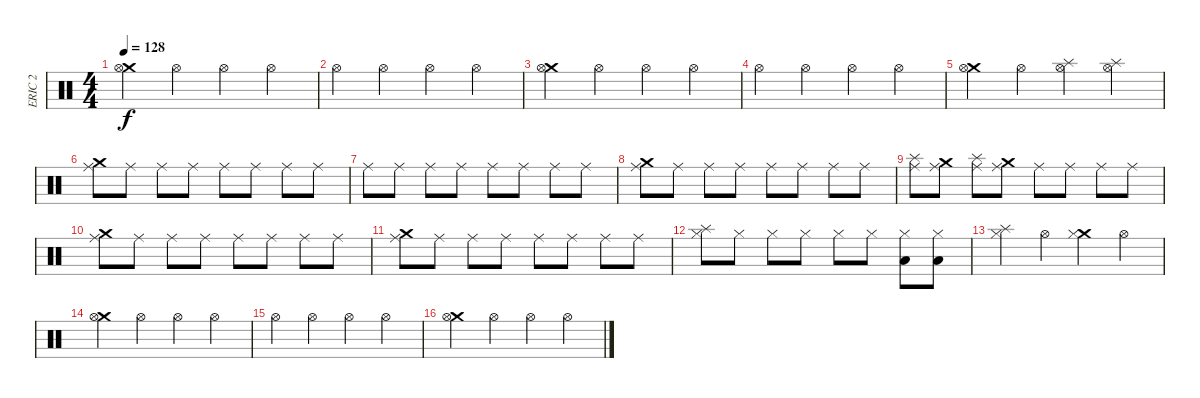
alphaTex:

\track ("ERIC 2" "ERIC 2") {instrument percussion}
\staff {score}
\articulation defaults
\ts (4 4)
\tempo 128
\clef neutral
\ks c
("Crash medium (hit)" "Hi-Hat (open)").4{dy f} "Hi-Hat (open)".4 "Hi-Hat (open)".4 "Hi-Hat (open)".4 |
"Hi-Hat (open)".4 "Hi-Hat (open)".4 "Hi-Hat (open)".4 "Hi-Hat (open)".4 |
("Crash medium (hit)" "Hi-Hat (open)").4 "Hi-Hat (open)".4 "Hi-Hat (open)".4 "Hi-Hat (open)".4 |
"Hi-Hat (open)".4 "Hi-Hat (open)".4 "Hi-Hat (open)".4 "Hi-Hat (open)".4 |
("Crash medium (hit)" "Hi-Hat (open)").4 "Hi-Hat (open)".4 ("Splash (hit)" "Hi-Hat (open)").4 ("Splash (hit)" "Hi-Hat (open)").4 |
("Crash medium (hit)" "Ride (middle)").8 "Ride (middle)".8 "Ride (middle)".8 "Ride (middle)".8 "Ride (middle)".8 "Ride (middle)".8 "Ride (middle)".8 "Ride (middle)".8 |
"Ride (middle)".8 "Ride (middle)".8 "Ride (middle)".8 "Ride (middle)".8 "Ride (middle)".8 "Ride (middle)".8 "Ride (middle)".8 "Ride (middle)".8 |
("Crash medium (hit)" "Ride (middle)").8 "Ride (middle)".8 "Ride (middle)".8 "Ride (middle)".8 "Ride (middle)".8 "Ride (middle)".8 "Ride (middle)".8 "Ride (middle)".8 |
("Splash (hit)" "Ride (middle)").8 ("Crash medium (hit)" "Ride (middle)").8 ("Splash (hit)" "Ride (middle)").8 ("Crash medium (hit)" "Ride (middle)").8 "Ride (middle)".8 "Ride (middle)".8 "Ride (middle)".8 "Ride (middle)".8 |
("Crash medium (hit)" "Ride (middle)").8 "Ride (middle)".8 "Ride (middle)".8 "Ride (middle)".8 "Ride (middle)".8 "Ride (middle)".8 "Ride (middle)".8 "Ride (middle)".8 |
("Crash medium (hit)" "Ride (middle)").8 "Ride (middle)".8 "Ride (middle)".8 "Ride (middle)".8 "Ride (middle)".8 "Ride (middle)".8 "Ride (middle)".8 "Ride (middle)".8 |
("Splash (hit)" "Hi-Hat (closed)").8 "Hi-Hat (closed)".8 "Hi-Hat (closed)".8 "Hi-Hat (closed)".8 "Hi-Hat (closed)".8 "Hi-Hat (closed)".8 ("Low Floor Tom (hit)" "Hi-Hat (closed)").8 ("Low Tom (hit)" "Hi-Hat (closed)").8 |
("Splash (hit)" "Hi-Hat (closed)").4 "Hi-Hat (open)".4 ("Crash medium (hit)" "Hi-Hat (closed)").4 "Hi-Hat (open)".4 |
("Crash medium (hit)" "Hi-Hat (open)").4 "Hi-Hat (open)".4 "Hi-Hat (open)".4 "Hi-Hat (open)".4 |
"Hi-Hat (open)".4 "Hi-Hat (open)".4 "Hi-Hat (open)".4 "Hi-Hat (open)".4 |
("Crash medium (hit)" "Hi-Hat (open)").4 "Hi-Hat (open)".4 "Hi-Hat (open)".4 "Hi-Hat (open)".4
